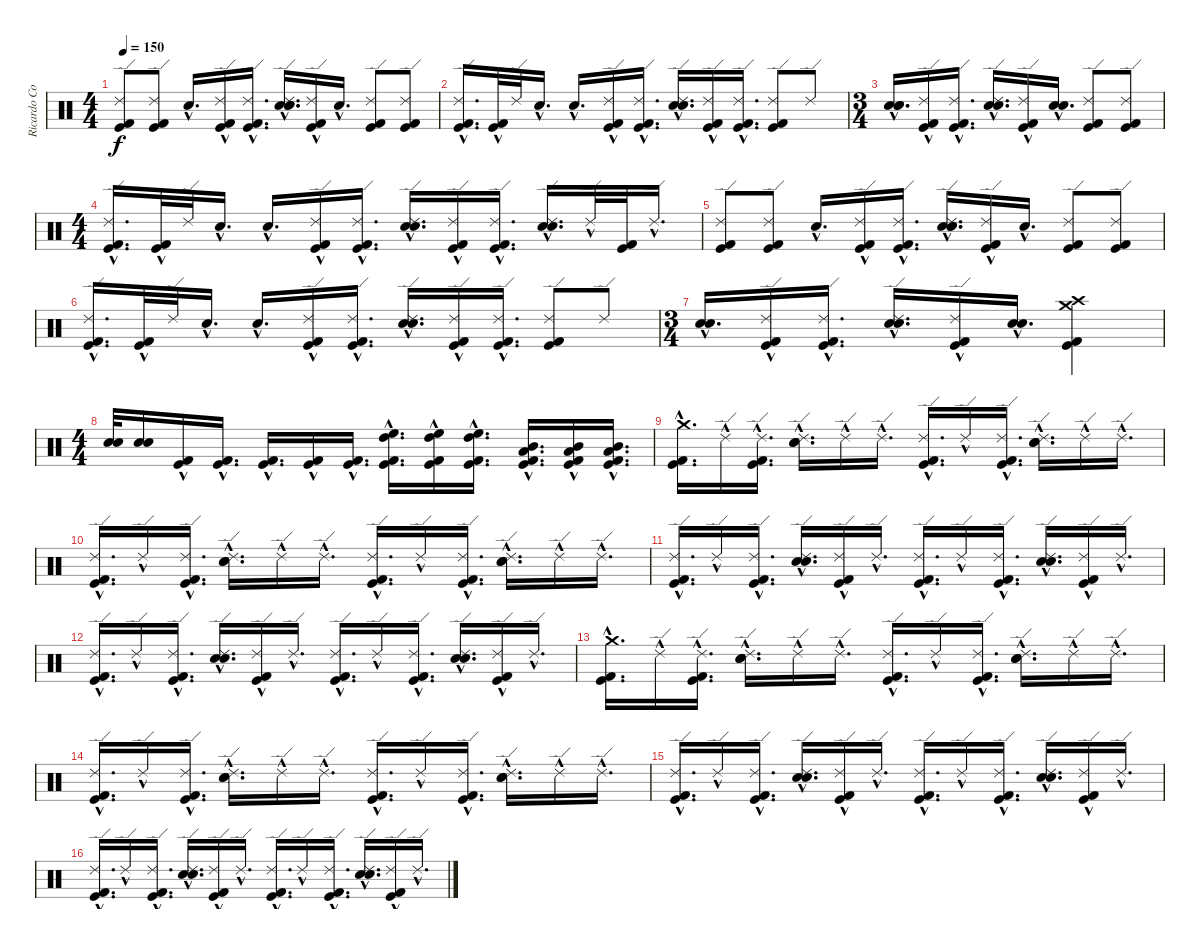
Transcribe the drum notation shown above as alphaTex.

\track ("Ricardo Confessori" "Ricardo Co") {instrument percussion}
\staff {score}
\articulation defaults
\ts (4 4)
\tempo 150
\clef neutral
\ks c
("Ride (edge) 2" "Kick (hit) 2" "Kick (hit)").8{dy f} ("Ride (edge) 2" "Kick (hit) 2" "Kick (hit)").8 "Snare (hit)"{hac}.16{d} ("Ride (edge) 2"{hac} "Kick (hit) 2"{hac} "Kick (hit)"{hac}).16 ("Ride (edge) 2"{hac} "Kick (hit) 2"{hac} "Kick (hit)"{hac}).16{d} ("Electric Snare (hit)"{hac} "Snare (hit) 2"{hac} "Ride (edge) 2"{hac} "Snare (hit)"{hac}).16{d} ("Ride (edge) 2"{hac} "Kick (hit) 2"{hac} "Kick (hit)"{hac}).16 "Snare (hit)"{hac}.16{d} ("Ride (edge) 2" "Kick (hit) 2" "Kick (hit)").8 ("Ride (edge) 2" "Kick (hit) 2" "Kick (hit)").8 |
("Ride (edge) 2" "Kick (hit) 2"{hac} "Kick (hit)"{hac}).16{d} ("Kick (hit) 2"{hac} "Kick (hit)"{hac}).32 "Ride (edge) 2".32 "Snare (hit)"{hac}.16{d} "Snare (hit)"{hac}.16{d} ("Ride (edge) 2"{hac} "Kick (hit) 2"{hac} "Kick (hit)"{hac}).16 ("Ride (edge) 2"{hac} "Kick (hit) 2"{hac} "Kick (hit)"{hac}).16{d} ("Electric Snare (hit)"{hac} "Snare (hit) 2"{hac} "Ride (edge) 2"{hac}).16{d} ("Ride (edge) 2"{hac} "Kick (hit) 2"{hac} "Kick (hit)"{hac}).16 ("Ride (edge) 2"{hac} "Kick (hit) 2"{hac} "Kick (hit)"{hac}).16{d} ("Kick (hit) 2" "Ride (edge) 2" "Kick (hit)").8 "Ride (edge) 2".8 |
\ts (3 4)
("Electric Snare (hit)"{hac} "Snare (hit) 2"{hac} "Snare (hit)"{hac}).16{d} ("Kick (hit) 2"{hac} "Ride (edge) 2"{hac} "Kick (hit)"{hac}).16 ("Kick (hit) 2"{hac} "Ride (edge) 2"{hac} "Kick (hit)"{hac}).16{d} ("Electric Snare (hit)"{hac} "Snare (hit) 2"{hac} "Ride (edge) 2"{hac}).16{d} ("Ride (edge) 2"{hac} "Kick (hit) 2"{hac} "Kick (hit)"{hac}).16 ("Snare (hit)"{hac} "Snare (hit)"{hac}).16{d} ("Ride (edge) 2" "Kick (hit) 2" "Kick (hit)").8 ("Ride (edge) 2" "Kick (hit) 2" "Kick (hit)").8 |
\ts (4 4)
("Ride (edge) 2" "Kick (hit) 2"{hac} "Kick (hit)"{hac}).16{d} ("Kick (hit) 2"{hac} "Kick (hit)"{hac}).32 "Ride (edge) 2".32 "Snare (hit)"{hac}.16{d} "Snare (hit)"{hac}.16{d} ("Ride (edge) 2"{hac} "Kick (hit) 2"{hac} "Kick (hit)"{hac}).16 ("Ride (edge) 2"{hac} "Kick (hit) 2"{hac} "Kick (hit)"{hac}).16{d} ("Electric Snare (hit)"{hac} "Ride (edge) 2"{hac} "Snare (hit) 2"{hac}).16{d} ("Ride (edge) 2"{hac} "Kick (hit) 2"{hac} "Kick (hit)"{hac}).16 ("Ride (edge) 2"{hac} "Kick (hit) 2"{hac} "Kick (hit)"{hac}).16{d} ("Ride (edge) 2"{hac} "Electric Snare (hit)"{hac} "Snare (hit) 2"{hac}).16{d} "Ride (edge) 2"{hac}.32 ("Kick (hit) 2" "Kick (hit)").32 "Ride (edge) 2"{hac}.16{d} |
("Ride (edge) 2" "Kick (hit) 2" "Kick (hit)").8 ("Ride (edge) 2" "Kick (hit) 2" "Kick (hit)").8 "Snare (hit)"{hac}.16{d} ("Ride (edge) 2"{hac} "Kick (hit) 2"{hac} "Kick (hit)"{hac}).16 ("Ride (edge) 2"{hac} "Kick (hit) 2"{hac} "Kick (hit)"{hac}).16{d} ("Electric Snare (hit)"{hac} "Snare (hit) 2"{hac} "Ride (edge) 2"{hac} "Snare (hit)"{hac}).16{d} ("Ride (edge) 2"{hac} "Kick (hit) 2"{hac} "Kick (hit)"{hac}).16 "Snare (hit)"{hac}.16{d} ("Ride (edge) 2" "Kick (hit) 2" "Kick (hit)").8 ("Ride (edge) 2" "Kick (hit) 2" "Kick (hit)").8 |
("Ride (edge) 2" "Kick (hit) 2"{hac} "Kick (hit)"{hac}).16{d} ("Kick (hit) 2"{hac} "Kick (hit)"{hac}).32 "Ride (edge) 2".32 "Snare (hit)"{hac}.16{d} "Snare (hit)"{hac}.16{d} ("Ride (edge) 2"{hac} "Kick (hit) 2"{hac} "Kick (hit)"{hac}).16 ("Ride (edge) 2"{hac} "Kick (hit) 2"{hac} "Kick (hit)"{hac}).16{d} ("Electric Snare (hit)"{hac} "Snare (hit) 2"{hac} "Ride (edge) 2"{hac}).16{d} ("Ride (edge) 2"{hac} "Kick (hit) 2"{hac} "Kick (hit)"{hac}).16 ("Ride (edge) 2"{hac} "Kick (hit) 2"{hac} "Kick (hit)"{hac}).16{d} ("Kick (hit) 2" "Ride (edge) 2" "Kick (hit)").8 "Ride (edge) 2".8 |
\ts (3 4)
("Electric Snare (hit)"{hac} "Snare (hit) 2"{hac}).16{d} ("Kick (hit) 2"{hac} "Ride (edge) 2"{hac} "Kick (hit)"{hac}).16 ("Kick (hit) 2"{hac} "Ride (edge) 2"{hac} "Kick (hit)"{hac}).16{d} ("Electric Snare (hit)"{hac} "Snare (hit) 2"{hac} "Ride (edge) 2"{hac}).16{d} ("Ride (edge) 2"{hac} "Kick (hit) 2"{hac} "Kick (hit)"{hac}).16 ("Snare (hit)"{hac} "Snare (hit)"{hac}).16{d} ("Crash high (hit)" "Crash medium (hit)" "Kick (hit) 2" "Kick (hit)").4 |
\ts (4 4)
("Electric Snare (hit)" "Snare (hit) 2").32 ("Electric Snare (hit)" "Snare (hit) 2").16 ("Kick (hit) 2"{hac} "Kick (hit)"{hac}).16 ("Kick (hit) 2"{hac} "Kick (hit)"{hac}).16{d} ("Kick (hit) 2"{hac} "Kick (hit)"{hac}).16{d} ("Kick (hit) 2"{hac} "Kick (hit)"{hac}).16 ("Kick (hit) 2"{hac} "Kick (hit)"{hac}).16{d} ("High Tom (hit)"{hac} "High Floor Tom (hit)"{hac} "Kick (hit) 2"{hac} "Kick (hit)"{hac}).16{d} ("High Tom (hit)"{hac} "High Floor Tom (hit)"{hac} "Kick (hit) 2"{hac} "Kick (hit)"{hac}).16 ("High Tom (hit)"{hac} "High Floor Tom (hit)"{hac} "Kick (hit) 2"{hac} "Kick (hit)"{hac}).16{d} ("Low Tom (hit)"{hac} "Mid Tom (hit)"{hac} "Kick (hit) 2"{hac} "Kick (hit)"{hac}).16{d} ("Mid Tom (hit)"{hac} "Low Tom (hit)"{hac} "Kick (hit) 2"{hac} "Kick (hit)"{hac}).16 ("Mid Tom (hit)"{hac} "Low Tom (hit)"{hac} "Kick (hit) 2"{hac} "Kick (hit)"{hac}).16{d} |
("Kick (hit)" "Kick (hit) 2" "Crash medium (hit)"{hac}).16{d} "Ride (edge) 2"{hac}.16 ("Kick (hit) 2"{hac} "Kick (hit)"{hac} "Ride (edge) 2"{hac}).16{d} ("Electric Snare (hit)" "Snare (hit) 2" "Ride (edge) 2"{hac}).16{d} "Ride (edge) 2"{hac}.16 "Ride (edge) 2"{hac}.16{d} ("Kick (hit) 2" "Kick (hit)" "Ride (edge) 2"{hac}).16{d} "Ride (edge) 2"{hac}.16 ("Kick (hit) 2"{hac} "Kick (hit)"{hac} "Ride (edge) 2"{hac}).16{d} ("Electric Snare (hit)" "Snare (hit) 2" "Ride (edge) 2"{hac}).16{d} "Ride (edge) 2"{hac}.16 "Ride (edge) 2"{hac}.16{d} |
("Ride (edge) 2"{hac} "Kick (hit)" "Kick (hit) 2").16{d} "Ride (edge) 2"{hac}.16 ("Kick (hit) 2"{hac} "Kick (hit)"{hac} "Ride (edge) 2"{hac}).16{d} ("Electric Snare (hit)" "Snare (hit) 2" "Ride (edge) 2"{hac}).16{d} "Ride (edge) 2"{hac}.16 "Ride (edge) 2"{hac}.16{d} ("Kick (hit) 2" "Kick (hit)" "Ride (edge) 2"{hac}).16{d} "Ride (edge) 2"{hac}.16 ("Kick (hit) 2"{hac} "Kick (hit)"{hac} "Ride (edge) 2"{hac}).16{d} ("Electric Snare (hit)" "Snare (hit) 2" "Ride (edge) 2"{hac}).16{d} "Ride (edge) 2"{hac}.16 "Ride (edge) 2"{hac}.16{d} |
("Ride (edge) 2"{hac} "Kick (hit)" "Kick (hit) 2").16{d} "Ride (edge) 2"{hac}.16 ("Kick (hit) 2"{hac} "Kick (hit)"{hac} "Ride (edge) 2"{hac}).16{d} ("Electric Snare (hit)" "Snare (hit) 2" "Ride (edge) 2"{hac}).16{d} ("Kick (hit) 2"{hac} "Kick (hit)"{hac} "Ride (edge) 2"{hac}).16 "Ride (edge) 2"{hac}.16{d} ("Kick (hit) 2" "Kick (hit)" "Ride (edge) 2"{hac}).16{d} "Ride (edge) 2"{hac}.16 ("Kick (hit) 2"{hac} "Kick (hit)"{hac} "Ride (edge) 2"{hac}).16{d} ("Electric Snare (hit)" "Snare (hit) 2" "Ride (edge) 2"{hac}).16{d} ("Kick (hit) 2"{hac} "Kick (hit)"{hac} "Ride (edge) 2"{hac}).16 "Ride (edge) 2"{hac}.16{d} |
("Ride (edge) 2"{hac} "Kick (hit)" "Kick (hit) 2").16{d} "Ride (edge) 2"{hac}.16 ("Kick (hit) 2"{hac} "Kick (hit)"{hac} "Ride (edge) 2"{hac}).16{d} ("Electric Snare (hit)" "Snare (hit) 2" "Ride (edge) 2"{hac}).16{d} ("Kick (hit) 2"{hac} "Kick (hit)"{hac} "Ride (edge) 2"{hac}).16 "Ride (edge) 2"{hac}.16{d} ("Kick (hit) 2" "Kick (hit)" "Ride (edge) 2"{hac}).16{d} "Ride (edge) 2"{hac}.16 ("Kick (hit) 2"{hac} "Kick (hit)"{hac} "Ride (edge) 2"{hac}).16{d} ("Electric Snare (hit)" "Snare (hit) 2" "Ride (edge) 2"{hac}).16{d} ("Kick (hit) 2"{hac} "Kick (hit)"{hac} "Ride (edge) 2"{hac}).16 "Ride (edge) 2"{hac}.16{d} |
("Kick (hit)" "Kick (hit) 2" "Crash medium (hit)"{hac}).16{d} "Ride (edge) 2"{hac}.16 ("Kick (hit) 2"{hac} "Kick (hit)"{hac} "Ride (edge) 2"{hac}).16{d} ("Electric Snare (hit)" "Snare (hit) 2" "Ride (edge) 2"{hac}).16{d} "Ride (edge) 2"{hac}.16 "Ride (edge) 2"{hac}.16{d} ("Kick (hit) 2" "Kick (hit)" "Ride (edge) 2"{hac}).16{d} "Ride (edge) 2"{hac}.16 ("Kick (hit) 2"{hac} "Kick (hit)"{hac} "Ride (edge) 2"{hac}).16{d} ("Electric Snare (hit)" "Snare (hit) 2" "Ride (edge) 2"{hac}).16{d} "Ride (edge) 2"{hac}.16 "Ride (edge) 2"{hac}.16{d} |
("Ride (edge) 2"{hac} "Kick (hit)" "Kick (hit) 2").16{d} "Ride (edge) 2"{hac}.16 ("Kick (hit) 2"{hac} "Kick (hit)"{hac} "Ride (edge) 2"{hac}).16{d} ("Electric Snare (hit)" "Snare (hit) 2" "Ride (edge) 2"{hac}).16{d} "Ride (edge) 2"{hac}.16 "Ride (edge) 2"{hac}.16{d} ("Kick (hit) 2" "Kick (hit)" "Ride (edge) 2"{hac}).16{d} "Ride (edge) 2"{hac}.16 ("Kick (hit)"{hac} "Kick (hit) 2"{hac} "Ride (edge) 2"{hac}).16{d} ("Electric Snare (hit)" "Snare (hit) 2" "Ride (edge) 2"{hac}).16{d} "Ride (edge) 2"{hac}.16 "Ride (edge) 2"{hac}.16{d} |
("Ride (edge) 2"{hac} "Kick (hit)" "Kick (hit) 2").16{d} "Ride (edge) 2"{hac}.16 ("Kick (hit)"{hac} "Kick (hit) 2"{hac} "Ride (edge) 2"{hac}).16{d} ("Electric Snare (hit)" "Snare (hit) 2" "Ride (edge) 2"{hac}).16{d} ("Kick (hit) 2"{hac} "Kick (hit)"{hac} "Ride (edge) 2"{hac}).16 "Ride (edge) 2"{hac}.16{d} ("Kick (hit) 2" "Kick (hit)" "Ride (edge) 2"{hac}).16{d} "Ride (edge) 2"{hac}.16 ("Kick (hit) 2"{hac} "Kick (hit)"{hac} "Ride (edge) 2"{hac}).16{d} ("Electric Snare (hit)" "Snare (hit) 2" "Ride (edge) 2"{hac}).16{d} ("Kick (hit) 2"{hac} "Kick (hit)"{hac} "Ride (edge) 2"{hac}).16 "Ride (edge) 2"{hac}.16{d} |
("Ride (edge) 2"{hac} "Kick (hit)" "Kick (hit) 2").16{d} "Ride (edge) 2"{hac}.16 ("Kick (hit) 2"{hac} "Kick (hit)"{hac} "Ride (edge) 2"{hac}).16{d} ("Electric Snare (hit)" "Snare (hit) 2" "Ride (edge) 2"{hac}).16{d} ("Kick (hit) 2"{hac} "Kick (hit)"{hac} "Ride (edge) 2"{hac}).16 "Ride (edge) 2"{hac}.16{d} ("Kick (hit) 2" "Kick (hit)" "Ride (edge) 2"{hac}).16{d} "Ride (edge) 2"{hac}.16 ("Kick (hit) 2"{hac} "Kick (hit)"{hac} "Ride (edge) 2"{hac}).16{d} ("Electric Snare (hit)" "Snare (hit) 2" "Ride (edge) 2"{hac}).16{d} ("Kick (hit) 2"{hac} "Kick (hit)"{hac} "Ride (edge) 2"{hac}).16 "Ride (edge) 2"{hac}.16{d}
